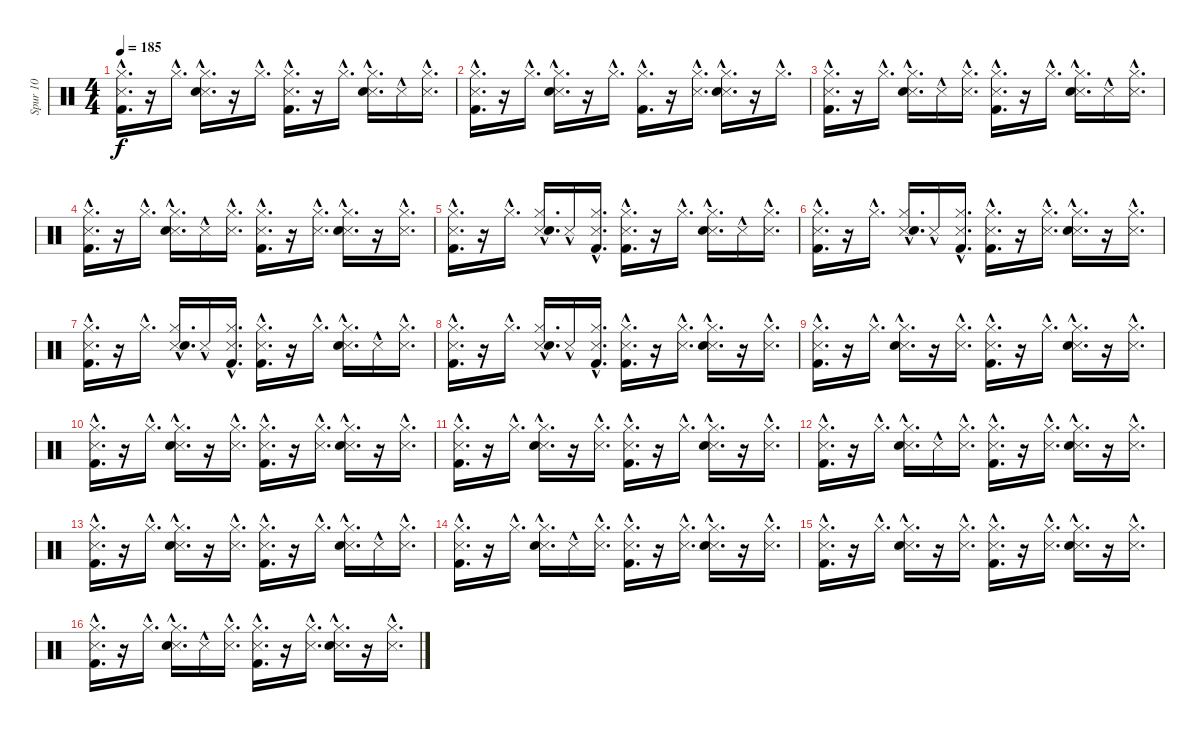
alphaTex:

\track ("Spur 10" "Spur 10") {instrument percussion}
\staff {score}
\articulation defaults
\ts (4 4)
\tempo 185
\clef neutral
\ks c
("Metronome (hit)"{hac} "Hi-Hat (closed)"{hac} "Kick (hit) 2"{hac}).16{d dy f} r.16 "Hi-Hat (closed)"{hac}.16{d} ("Metronome (hit)"{hac} "Hi-Hat (closed)"{hac} "Snare (hit) 2"{hac}).16{d} r.16 "Hi-Hat (closed)"{hac}.16{d} ("Metronome (hit)"{hac} "Hi-Hat (closed)"{hac} "Kick (hit) 2"{hac}).16{d} r.16 "Hi-Hat (closed)"{hac}.16{d} ("Metronome (hit)"{hac} "Hi-Hat (closed)"{hac} "Snare (hit) 2"{hac}).16{d} "Metronome (hit)"{hac}.16 ("Metronome (hit)"{hac} "Hi-Hat (closed)"{hac}).16{d} |
("Metronome (hit)"{hac} "Kick (hit) 2"{hac} "Hi-Hat (closed)"{hac}).16{d} r.16 "Hi-Hat (closed)"{hac}.16{d} ("Metronome (hit)"{hac} "Snare (hit) 2"{hac} "Hi-Hat (closed)"{hac}).16{d} r.16 "Hi-Hat (closed)"{hac}.16{d} ("Kick (hit) 2"{hac} "Hi-Hat (closed)"{hac}).16{d} r.16 ("Metronome (hit)"{hac} "Hi-Hat (closed)"{hac}).16{d} ("Metronome (hit)"{hac} "Snare (hit) 2"{hac} "Hi-Hat (closed)"{hac}).16{d} r.16 "Hi-Hat (closed)"{hac}.16{d} |
("Metronome (hit)"{hac} "Kick (hit) 2"{hac} "Hi-Hat (closed)"{hac}).16{d} r.16 "Hi-Hat (closed)"{hac}.16{d} ("Metronome (hit)"{hac} "Snare (hit) 2"{hac} "Hi-Hat (closed)"{hac}).16{d} "Metronome (hit)"{hac}.16 ("Metronome (hit)"{hac} "Hi-Hat (closed)"{hac}).16{d} ("Metronome (hit)"{hac} "Kick (hit) 2"{hac} "Hi-Hat (closed)"{hac}).16{d} r.16 "Hi-Hat (closed)"{hac}.16{d} ("Metronome (hit)"{hac} "Snare (hit) 2"{hac} "Hi-Hat (closed)"{hac}).16{d} "Metronome (hit)"{hac}.16 ("Metronome (hit)"{hac} "Hi-Hat (closed)"{hac}).16{d} |
("Metronome (hit)"{hac} "Kick (hit) 2"{hac} "Hi-Hat (closed)"{hac}).16{d} r.16 "Hi-Hat (closed)"{hac}.16{d} ("Metronome (hit)"{hac} "Snare (hit) 2"{hac} "Hi-Hat (closed)"{hac}).16{d} "Metronome (hit)"{hac}.16 ("Metronome (hit)"{hac} "Hi-Hat (closed)"{hac}).16{d} ("Metronome (hit)"{hac} "Kick (hit) 2"{hac} "Hi-Hat (closed)"{hac}).16{d} r.16 ("Metronome (hit)"{hac} "Hi-Hat (closed)"{hac}).16{d} ("Metronome (hit)"{hac} "Snare (hit) 2"{hac} "Hi-Hat (closed)"{hac}).16{d} r.16 ("Metronome (hit)"{hac} "Hi-Hat (closed)"{hac}).16{d} |
("Metronome (hit)"{hac} "Hi-Hat (closed)"{hac} "Kick (hit) 2"{hac}).16{d} r.16 "Hi-Hat (closed)"{hac}.16{d} ("Metronome (hit)"{hac} "Hi-Hat (closed)"{hac} "Snare (hit) 2"{hac}).16{d} "Metronome (hit)"{hac}.16 ("Metronome (hit)"{hac} "Kick (hit) 2"{hac} "Hi-Hat (closed)"{hac}).16{d} ("Metronome (hit)"{hac} "Hi-Hat (closed)"{hac} "Kick (hit) 2"{hac}).16{d} r.16 "Hi-Hat (closed)"{hac}.16{d} ("Metronome (hit)"{hac} "Hi-Hat (closed)"{hac} "Snare (hit) 2"{hac}).16{d} "Metronome (hit)"{hac}.16 ("Metronome (hit)"{hac} "Hi-Hat (closed)"{hac}).16{d} |
("Metronome (hit)"{hac} "Kick (hit) 2"{hac} "Hi-Hat (closed)"{hac}).16{d} r.16 "Hi-Hat (closed)"{hac}.16{d} ("Metronome (hit)"{hac} "Snare (hit) 2"{hac} "Hi-Hat (closed)"{hac}).16{d} "Metronome (hit)"{hac}.16 ("Metronome (hit)"{hac} "Kick (hit) 2"{hac} "Hi-Hat (closed)"{hac}).16{d} ("Metronome (hit)"{hac} "Kick (hit) 2"{hac} "Hi-Hat (closed)"{hac}).16{d} r.16 ("Metronome (hit)"{hac} "Hi-Hat (closed)"{hac}).16{d} ("Metronome (hit)"{hac} "Snare (hit) 2"{hac} "Hi-Hat (closed)"{hac}).16{d} r.16 ("Metronome (hit)"{hac} "Hi-Hat (closed)"{hac}).16{d} |
("Metronome (hit)"{hac} "Kick (hit) 2"{hac} "Hi-Hat (closed)"{hac}).16{d} r.16 "Hi-Hat (closed)"{hac}.16{d} ("Metronome (hit)"{hac} "Snare (hit) 2"{hac} "Hi-Hat (closed)"{hac}).16{d} "Metronome (hit)"{hac}.16 ("Metronome (hit)"{hac} "Kick (hit) 2"{hac} "Hi-Hat (closed)"{hac}).16{d} ("Metronome (hit)"{hac} "Kick (hit) 2"{hac} "Hi-Hat (closed)"{hac}).16{d} r.16 "Hi-Hat (closed)"{hac}.16{d} ("Metronome (hit)"{hac} "Snare (hit) 2"{hac} "Hi-Hat (closed)"{hac}).16{d} "Metronome (hit)"{hac}.16 ("Metronome (hit)"{hac} "Hi-Hat (closed)"{hac}).16{d} |
("Metronome (hit)"{hac} "Kick (hit) 2"{hac} "Hi-Hat (closed)"{hac}).16{d} r.16 "Hi-Hat (closed)"{hac}.16{d} ("Metronome (hit)"{hac} "Snare (hit) 2"{hac} "Hi-Hat (closed)"{hac}).16{d} "Metronome (hit)"{hac}.16 ("Metronome (hit)"{hac} "Kick (hit) 2"{hac} "Hi-Hat (closed)"{hac}).16{d} ("Metronome (hit)"{hac} "Kick (hit) 2"{hac} "Hi-Hat (closed)"{hac}).16{d} r.16 ("Metronome (hit)"{hac} "Hi-Hat (closed)"{hac}).16{d} ("Metronome (hit)"{hac} "Snare (hit) 2"{hac} "Hi-Hat (closed)"{hac}).16{d} r.16 ("Metronome (hit)"{hac} "Hi-Hat (closed)"{hac}).16{d} |
("Metronome (hit)"{hac} "Hi-Hat (closed)"{hac} "Kick (hit) 2"{hac}).16{d} r.16 "Hi-Hat (closed)"{hac}.16{d} ("Metronome (hit)"{hac} "Hi-Hat (closed)"{hac} "Snare (hit) 2"{hac}).16{d} r.16 ("Metronome (hit)"{hac} "Hi-Hat (closed)"{hac}).16{d} ("Metronome (hit)"{hac} "Hi-Hat (closed)"{hac} "Kick (hit) 2"{hac}).16{d} r.16 "Hi-Hat (closed)"{hac}.16{d} ("Metronome (hit)"{hac} "Hi-Hat (closed)"{hac} "Snare (hit) 2"{hac}).16{d} r.16 ("Metronome (hit)"{hac} "Hi-Hat (closed)"{hac}).16{d} |
("Metronome (hit)"{hac} "Kick (hit) 2"{hac} "Hi-Hat (closed)"{hac}).16{d} r.16 "Hi-Hat (closed)"{hac}.16{d} ("Metronome (hit)"{hac} "Snare (hit) 2"{hac} "Hi-Hat (closed)"{hac}).16{d} r.16 ("Metronome (hit)"{hac} "Hi-Hat (closed)"{hac}).16{d} ("Metronome (hit)"{hac} "Kick (hit) 2"{hac} "Hi-Hat (closed)"{hac}).16{d} r.16 ("Metronome (hit)"{hac} "Hi-Hat (closed)"{hac}).16{d} ("Metronome (hit)"{hac} "Snare (hit) 2"{hac} "Hi-Hat (closed)"{hac}).16{d} r.16 ("Metronome (hit)"{hac} "Hi-Hat (closed)"{hac}).16{d} |
("Metronome (hit)"{hac} "Kick (hit) 2"{hac} "Hi-Hat (closed)"{hac}).16{d} r.16 "Hi-Hat (closed)"{hac}.16{d} ("Metronome (hit)"{hac} "Snare (hit) 2"{hac} "Hi-Hat (closed)"{hac}).16{d} r.16 ("Metronome (hit)"{hac} "Hi-Hat (closed)"{hac}).16{d} ("Metronome (hit)"{hac} "Kick (hit) 2"{hac} "Hi-Hat (closed)"{hac}).16{d} r.16 "Hi-Hat (closed)"{hac}.16{d} ("Metronome (hit)"{hac} "Snare (hit) 2"{hac} "Hi-Hat (closed)"{hac}).16{d} r.16 ("Metronome (hit)"{hac} "Hi-Hat (closed)"{hac}).16{d} |
("Metronome (hit)"{hac} "Kick (hit) 2"{hac} "Hi-Hat (closed)"{hac}).16{d} r.16 "Hi-Hat (closed)"{hac}.16{d} ("Metronome (hit)"{hac} "Snare (hit) 2"{hac} "Hi-Hat (closed)"{hac}).16{d} "Metronome (hit)"{hac}.16 ("Metronome (hit)"{hac} "Hi-Hat (closed)"{hac}).16{d} ("Metronome (hit)"{hac} "Kick (hit) 2"{hac} "Hi-Hat (closed)"{hac}).16{d} r.16 ("Metronome (hit)"{hac} "Hi-Hat (closed)"{hac}).16{d} ("Metronome (hit)"{hac} "Snare (hit) 2"{hac} "Hi-Hat (closed)"{hac}).16{d} r.16 ("Metronome (hit)"{hac} "Hi-Hat (closed)"{hac}).16{d} |
("Metronome (hit)"{hac} "Hi-Hat (closed)"{hac} "Kick (hit) 2"{hac}).16{d} r.16 "Hi-Hat (closed)"{hac}.16{d} ("Metronome (hit)"{hac} "Hi-Hat (closed)"{hac} "Snare (hit) 2"{hac}).16{d} r.16 ("Metronome (hit)"{hac} "Hi-Hat (closed)"{hac}).16{d} ("Metronome (hit)"{hac} "Hi-Hat (closed)"{hac} "Kick (hit) 2"{hac}).16{d} r.16 "Hi-Hat (closed)"{hac}.16{d} ("Metronome (hit)"{hac} "Hi-Hat (closed)"{hac} "Snare (hit) 2"{hac}).16{d} "Metronome (hit)"{hac}.16 ("Metronome (hit)"{hac} "Hi-Hat (closed)"{hac}).16{d} |
("Metronome (hit)"{hac} "Kick (hit) 2"{hac} "Hi-Hat (closed)"{hac}).16{d} r.16 "Hi-Hat (closed)"{hac}.16{d} ("Metronome (hit)"{hac} "Snare (hit) 2"{hac} "Hi-Hat (closed)"{hac}).16{d} "Metronome (hit)"{hac}.16 ("Metronome (hit)"{hac} "Hi-Hat (closed)"{hac}).16{d} ("Metronome (hit)"{hac} "Kick (hit) 2"{hac} "Hi-Hat (closed)"{hac}).16{d} r.16 ("Metronome (hit)"{hac} "Hi-Hat (closed)"{hac}).16{d} ("Metronome (hit)"{hac} "Snare (hit) 2"{hac} "Hi-Hat (closed)"{hac}).16{d} r.16 ("Metronome (hit)"{hac} "Hi-Hat (closed)"{hac}).16{d} |
("Metronome (hit)"{hac} "Kick (hit) 2"{hac} "Hi-Hat (closed)"{hac}).16{d} r.16 "Hi-Hat (closed)"{hac}.16{d} ("Metronome (hit)"{hac} "Snare (hit) 2"{hac} "Hi-Hat (closed)"{hac}).16{d} r.16 ("Metronome (hit)"{hac} "Hi-Hat (closed)"{hac}).16{d} ("Metronome (hit)"{hac} "Kick (hit) 2"{hac} "Hi-Hat (closed)"{hac}).16{d} r.16 ("Metronome (hit)"{hac} "Hi-Hat (closed)"{hac}).16{d} ("Metronome (hit)"{hac} "Snare (hit) 2"{hac} "Hi-Hat (closed)"{hac}).16{d} r.16 ("Metronome (hit)"{hac} "Hi-Hat (closed)"{hac}).16{d} |
("Metronome (hit)"{hac} "Kick (hit) 2"{hac} "Hi-Hat (closed)"{hac}).16{d} r.16 "Hi-Hat (closed)"{hac}.16{d} ("Metronome (hit)"{hac} "Snare (hit) 2"{hac} "Hi-Hat (closed)"{hac}).16{d} "Metronome (hit)"{hac}.16 ("Metronome (hit)"{hac} "Hi-Hat (closed)"{hac}).16{d} ("Metronome (hit)"{hac} "Kick (hit) 2"{hac} "Hi-Hat (closed)"{hac}).16{d} r.16 ("Metronome (hit)"{hac} "Hi-Hat (closed)"{hac}).16{d} ("Metronome (hit)"{hac} "Snare (hit) 2"{hac} "Hi-Hat (closed)"{hac}).16{d} r.16 ("Metronome (hit)"{hac} "Hi-Hat (closed)"{hac}).16{d}
